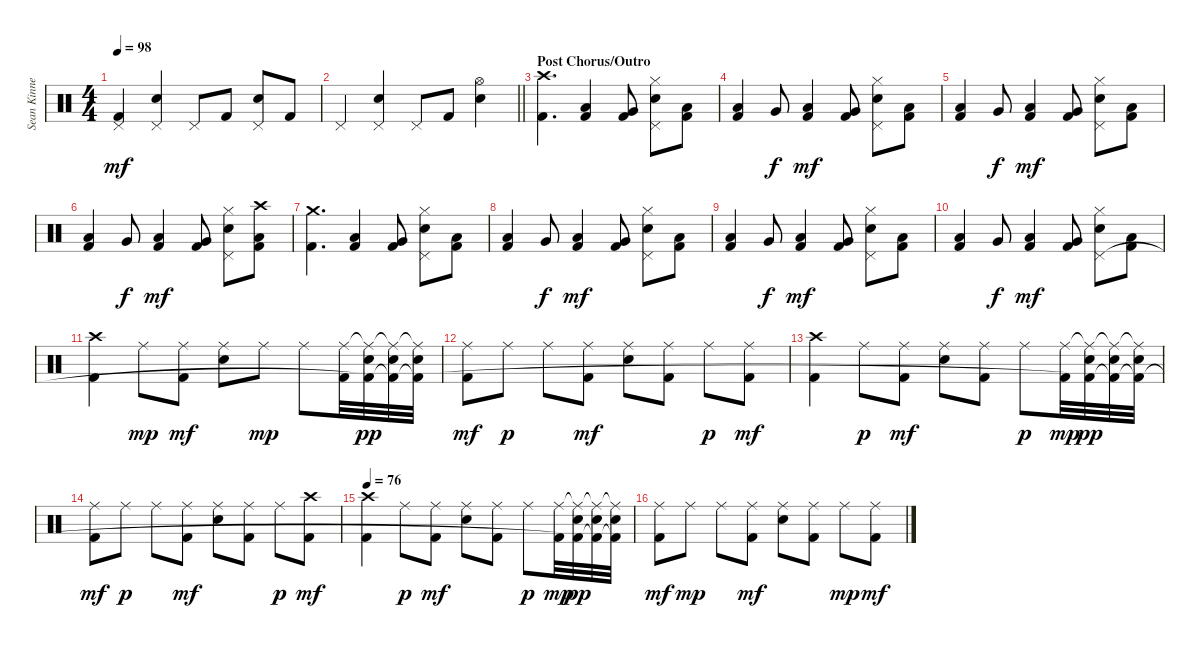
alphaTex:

\track ("Sean Kinney" "Sean Kinne") {instrument percussion}
\staff {score}
\articulation defaults
\ts (4 4)
\tempo 98
\clef neutral
\ks c
("Pedal Hi-Hat (hit)" "Kick (hit) 2").4{dy mf} ("Pedal Hi-Hat (hit)" "Snare (hit) 2").4 "Pedal Hi-Hat (hit)".8 "Kick (hit) 2".8 ("Pedal Hi-Hat (hit)" "Snare (hit) 2").8 "Kick (hit) 2".8 |
\barLineRight lightlight "Pedal Hi-Hat (hit)".4
("Pedal Hi-Hat (hit)" "Snare (hit) 2").4 "Pedal Hi-Hat (hit)".8 "Kick (hit) 2".8 ("Hi-Hat (open)" "Snare (hit) 2").4 |
\section ("" "Post Chorus/Outro")
("Crash high (hit)" "Kick (hit) 2").4{d} ("Low Floor Tom (hit)" "Kick (hit) 2").4 ("Very Low Tom (hit)" "Kick (hit) 2").8 ("Hi-Hat (closed)" "Snare (hit) 2" "Pedal Hi-Hat (hit)").8 ("Low Floor Tom (hit)" "Kick (hit) 2").8 |
("Low Floor Tom (hit)" "Kick (hit) 2").4 "Very Low Tom (hit)".8{dy f} ("Low Floor Tom (hit)" "Kick (hit) 2").4{dy mf} ("Very Low Tom (hit)" "Kick (hit) 2").8 ("Hi-Hat (closed)" "Snare (hit) 2" "Pedal Hi-Hat (hit)").8 ("Low Floor Tom (hit)" "Kick (hit) 2").8 |
("Low Floor Tom (hit)" "Kick (hit) 2").4 "Very Low Tom (hit)".8{dy f} ("Low Floor Tom (hit)" "Kick (hit) 2").4{dy mf} ("Very Low Tom (hit)" "Kick (hit) 2").8 ("Hi-Hat (closed)" "Snare (hit) 2" "Pedal Hi-Hat (hit)").8 ("Low Floor Tom (hit)" "Kick (hit) 2").8 |
("Low Floor Tom (hit)" "Kick (hit) 2").4 "Very Low Tom (hit)".8{dy f} ("Low Floor Tom (hit)" "Kick (hit) 2").4{dy mf} ("Very Low Tom (hit)" "Kick (hit) 2").8 ("Hi-Hat (closed)" "Snare (hit) 2" "Pedal Hi-Hat (hit)").8 ("Low Floor Tom (hit)" "Crash high (hit)" "Kick (hit) 2").8 |
("Crash medium (hit)" "Kick (hit) 2").4{d} ("Low Floor Tom (hit)" "Kick (hit) 2").4 ("Very Low Tom (hit)" "Kick (hit) 2").8 ("Hi-Hat (closed)" "Snare (hit) 2" "Pedal Hi-Hat (hit)").8 ("Low Floor Tom (hit)" "Kick (hit) 2").8 |
("Low Floor Tom (hit)" "Kick (hit) 2").4 "Very Low Tom (hit)".8{dy f} ("Low Floor Tom (hit)" "Kick (hit) 2").4{dy mf} ("Very Low Tom (hit)" "Kick (hit) 2").8 ("Hi-Hat (closed)" "Snare (hit) 2" "Pedal Hi-Hat (hit)").8 ("Low Floor Tom (hit)" "Kick (hit) 2").8 |
("Low Floor Tom (hit)" "Kick (hit) 2").4 "Very Low Tom (hit)".8{dy f} ("Low Floor Tom (hit)" "Kick (hit) 2").4{dy mf} ("Very Low Tom (hit)" "Kick (hit) 2").8 ("Hi-Hat (closed)" "Snare (hit) 2" "Pedal Hi-Hat (hit)").8 ("Low Floor Tom (hit)" "Kick (hit) 2").8 |
("Low Floor Tom (hit)" "Kick (hit) 2").4 "Very Low Tom (hit)".8{dy f} ("Low Floor Tom (hit)" "Kick (hit) 2").4{dy mf} ("Very Low Tom (hit)" "Kick (hit) 2").8 ("Hi-Hat (closed)" "Snare (hit) 2" "Pedal Hi-Hat (hit)").8 ("Low Floor Tom (hit)" "Kick (hit) 2").8 |
("Crash high (hit)" "Kick (hit) 2").4 "Ride (middle)".8{dy mp} ("Ride (middle)" "Kick (hit) 2").8{dy mf} ("Ride (middle)" "Snare (hit) 2").8 "Ride (middle)".8{dy mp} "Ride (middle)".8 ("Ride (middle)" "Kick (hit) 2").32 ("Ride (middle)"{t} "Snare (hit) 2" "Kick (hit) 2"{t}).32{dy pp} ("Ride (middle)"{t} "Snare (hit) 2" "Kick (hit) 2"{t}).32 ("Ride (middle)"{t} "Snare (hit) 2" "Kick (hit) 2"{t}).32 |
("Ride (middle)" "Kick (hit) 2").8{dy mf} "Ride (middle)".8{dy p} "Ride (middle)".8 ("Ride (middle)" "Kick (hit) 2").8{dy mf} ("Ride (middle)" "Snare (hit) 2").8 ("Ride (middle)" "Kick (hit) 2").8 "Ride (middle)".8{dy p} ("Ride (middle)" "Kick (hit) 2").8{dy mf} |
("Crash high (hit)" "Kick (hit) 2").4 "Ride (middle)".8{dy p} ("Ride (middle)" "Kick (hit) 2").8{dy mf} ("Ride (middle)" "Snare (hit) 2").8 ("Ride (middle)" "Kick (hit) 2").8 "Ride (middle)".8{dy p} ("Ride (middle)" "Kick (hit) 2").32{dy mp} ("Ride (middle)"{t} "Snare (hit) 2" "Kick (hit) 2"{t}).32{dy pp} ("Ride (middle)"{t} "Snare (hit) 2" "Kick (hit) 2"{t}).32 ("Ride (middle)"{t} "Snare (hit) 2" "Kick (hit) 2"{t}).32 |
("Ride (middle)" "Kick (hit) 2").8{dy mf} "Ride (middle)".8{dy p} "Ride (middle)".8 ("Ride (middle)" "Kick (hit) 2").8{dy mf} ("Ride (middle)" "Snare (hit) 2").8 ("Ride (middle)" "Kick (hit) 2").8 "Ride (middle)".8{dy p} ("Crash high (hit)" "Kick (hit) 2").8{dy mf} |
\tempo 86
\tempo 76
("Crash high (hit)" "Kick (hit) 2").4 "Ride (middle)".8{dy p} ("Ride (middle)" "Kick (hit) 2").8{dy mf} ("Ride (middle)" "Snare (hit) 2").8 ("Ride (middle)" "Kick (hit) 2").8 "Ride (middle)".8{dy p} ("Ride (middle)" "Kick (hit) 2").32{dy mp} ("Ride (middle)"{t} "Snare (hit) 2" "Kick (hit) 2"{t}).32{dy pp} ("Ride (middle)"{t} "Snare (hit) 2" "Kick (hit) 2"{t}).32 ("Ride (middle)"{t} "Snare (hit) 2" "Kick (hit) 2"{t}).32 |
("Ride (middle)" "Kick (hit) 2").8{dy mf} "Ride (middle)".8{dy mp} "Ride (middle)".8 ("Ride (middle)" "Kick (hit) 2").8{dy mf} ("Ride (middle)" "Snare (hit) 2").8 ("Ride (middle)" "Kick (hit) 2").8 "Ride (middle)".8{dy mp} ("Ride (middle)" "Kick (hit) 2").8{dy mf}
